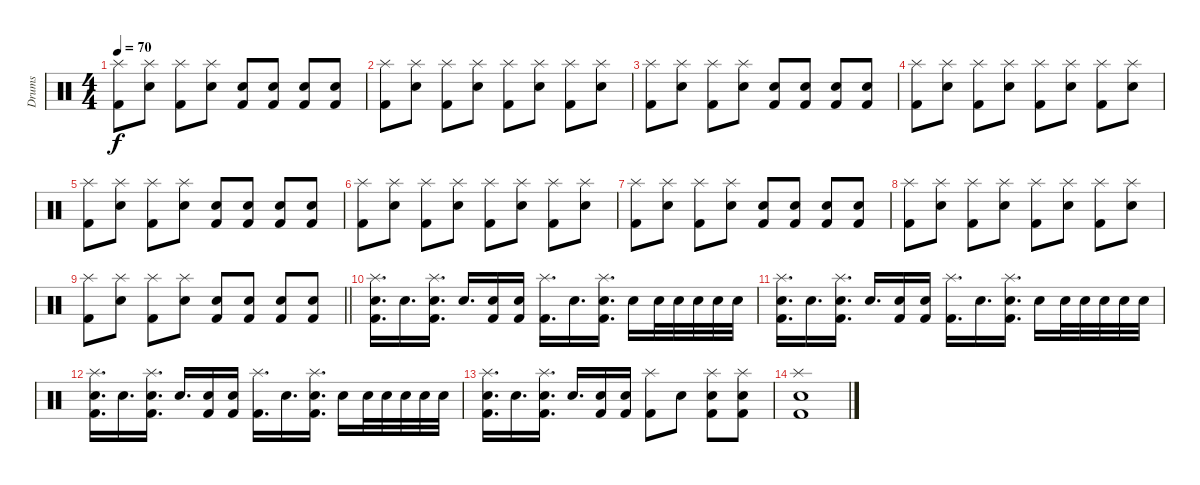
\track ("Drums" "Drums") {instrument percussion}
\staff {score}
\articulation defaults
\ts (4 4)
\tempo 70
\clef neutral
\ks c
("Splash (hit)" "Kick (hit) 2").8{dy f} ("Splash (hit)" "Snare (hit) 2").8 ("Splash (hit)" "Kick (hit) 2").8 ("Splash (hit)" "Snare (hit) 2").8 ("Snare (hit) 2" "Kick (hit) 2").8 ("Snare (hit) 2" "Kick (hit) 2").8 ("Snare (hit) 2" "Kick (hit) 2").8 ("Snare (hit) 2" "Kick (hit) 2").8 |
("Splash (hit)" "Kick (hit) 2").8 ("Splash (hit)" "Snare (hit) 2").8 ("Splash (hit)" "Kick (hit) 2").8 ("Splash (hit)" "Snare (hit) 2").8 ("Splash (hit)" "Kick (hit) 2").8 ("Splash (hit)" "Snare (hit) 2").8 ("Splash (hit)" "Kick (hit) 2").8 ("Splash (hit)" "Snare (hit) 2").8 |
("Splash (hit)" "Kick (hit) 2").8 ("Splash (hit)" "Snare (hit) 2").8 ("Splash (hit)" "Kick (hit) 2").8 ("Splash (hit)" "Snare (hit) 2").8 ("Snare (hit) 2" "Kick (hit) 2").8 ("Snare (hit) 2" "Kick (hit) 2").8 ("Snare (hit) 2" "Kick (hit) 2").8 ("Snare (hit) 2" "Kick (hit) 2").8 |
("Splash (hit)" "Kick (hit) 2").8 ("Splash (hit)" "Snare (hit) 2").8 ("Splash (hit)" "Kick (hit) 2").8 ("Splash (hit)" "Snare (hit) 2").8 ("Splash (hit)" "Kick (hit) 2").8 ("Splash (hit)" "Snare (hit) 2").8 ("Splash (hit)" "Kick (hit) 2").8 ("Splash (hit)" "Snare (hit) 2").8 |
("Splash (hit)" "Kick (hit) 2").8 ("Splash (hit)" "Snare (hit) 2").8 ("Splash (hit)" "Kick (hit) 2").8 ("Splash (hit)" "Snare (hit) 2").8 ("Snare (hit) 2" "Kick (hit) 2").8 ("Snare (hit) 2" "Kick (hit) 2").8 ("Snare (hit) 2" "Kick (hit) 2").8 ("Snare (hit) 2" "Kick (hit) 2").8 |
("Splash (hit)" "Kick (hit) 2").8 ("Splash (hit)" "Snare (hit) 2").8 ("Splash (hit)" "Kick (hit) 2").8 ("Splash (hit)" "Snare (hit) 2").8 ("Splash (hit)" "Kick (hit) 2").8 ("Splash (hit)" "Snare (hit) 2").8 ("Splash (hit)" "Kick (hit) 2").8 ("Splash (hit)" "Snare (hit) 2").8 |
("Splash (hit)" "Kick (hit) 2").8 ("Splash (hit)" "Snare (hit) 2").8 ("Splash (hit)" "Kick (hit) 2").8 ("Splash (hit)" "Snare (hit) 2").8 ("Snare (hit) 2" "Kick (hit) 2").8 ("Snare (hit) 2" "Kick (hit) 2").8 ("Snare (hit) 2" "Kick (hit) 2").8 ("Snare (hit) 2" "Kick (hit) 2").8 |
("Splash (hit)" "Kick (hit) 2").8 ("Splash (hit)" "Snare (hit) 2").8 ("Splash (hit)" "Kick (hit) 2").8 ("Splash (hit)" "Snare (hit) 2").8 ("Splash (hit)" "Kick (hit) 2").8 ("Splash (hit)" "Snare (hit) 2").8 ("Splash (hit)" "Kick (hit) 2").8 ("Splash (hit)" "Snare (hit) 2").8 |
\barLineRight lightlight
("Splash (hit)" "Kick (hit) 2").8 ("Splash (hit)" "Snare (hit) 2").8 ("Splash (hit)" "Kick (hit) 2").8 ("Splash (hit)" "Snare (hit) 2").8 ("Snare (hit) 2" "Kick (hit) 2").8 ("Snare (hit) 2" "Kick (hit) 2").8 ("Snare (hit) 2" "Kick (hit) 2").8 ("Snare (hit) 2" "Kick (hit) 2").8 |
("Splash (hit)" "Electric Snare (hit)" "Kick (hit) 2").16{d} "Electric Snare (hit)".16{d} ("Splash (hit)" "Electric Snare (hit)" "Kick (hit) 2").16{d} "Electric Snare (hit)".16{d} ("Electric Snare (hit)" "Kick (hit) 2").16 ("Electric Snare (hit)" "Kick (hit) 2").16 ("Splash (hit)" "Kick (hit) 2").16{d} "Electric Snare (hit)".16{d} ("Splash (hit)" "Electric Snare (hit)" "Kick (hit) 2").16{d} "Electric Snare (hit)".16 "Electric Snare (hit)".32 "Electric Snare (hit)".32 "Electric Snare (hit)".32 "Electric Snare (hit)".32 "Electric Snare (hit)".32 |
("Splash (hit)" "Electric Snare (hit)" "Kick (hit) 2").16{d} "Electric Snare (hit)".16{d} ("Splash (hit)" "Electric Snare (hit)" "Kick (hit) 2").16{d} "Electric Snare (hit)".16{d} ("Electric Snare (hit)" "Kick (hit) 2").16 ("Electric Snare (hit)" "Kick (hit) 2").16 ("Splash (hit)" "Kick (hit) 2").16{d} "Electric Snare (hit)".16{d} ("Splash (hit)" "Electric Snare (hit)" "Kick (hit) 2").16{d} "Electric Snare (hit)".16 "Electric Snare (hit)".32 "Electric Snare (hit)".32 "Electric Snare (hit)".32 "Electric Snare (hit)".32 "Electric Snare (hit)".32 |
("Splash (hit)" "Electric Snare (hit)" "Kick (hit) 2").16{d} "Electric Snare (hit)".16{d} ("Splash (hit)" "Electric Snare (hit)" "Kick (hit) 2").16{d} "Electric Snare (hit)".16{d} ("Electric Snare (hit)" "Kick (hit) 2").16 ("Electric Snare (hit)" "Kick (hit) 2").16 ("Splash (hit)" "Kick (hit) 2").16{d} "Electric Snare (hit)".16{d} ("Splash (hit)" "Electric Snare (hit)" "Kick (hit) 2").16{d} "Electric Snare (hit)".16 "Electric Snare (hit)".32 "Electric Snare (hit)".32 "Electric Snare (hit)".32 "Electric Snare (hit)".32 "Electric Snare (hit)".32 |
("Splash (hit)" "Electric Snare (hit)" "Kick (hit) 2").16{d} "Electric Snare (hit)".16{d} ("Splash (hit)" "Electric Snare (hit)" "Kick (hit) 2").16{d} "Electric Snare (hit)".16{d} ("Electric Snare (hit)" "Kick (hit) 2").16 ("Electric Snare (hit)" "Kick (hit) 2").16 ("Splash (hit)" "Kick (hit) 2").8 "Electric Snare (hit)".8 ("Splash (hit)" "Electric Snare (hit)" "Kick (hit) 2").8 ("Splash (hit)" "Electric Snare (hit)" "Kick (hit) 2").8 |
("Splash (hit)" "Electric Snare (hit)" "Kick (hit) 2").1
